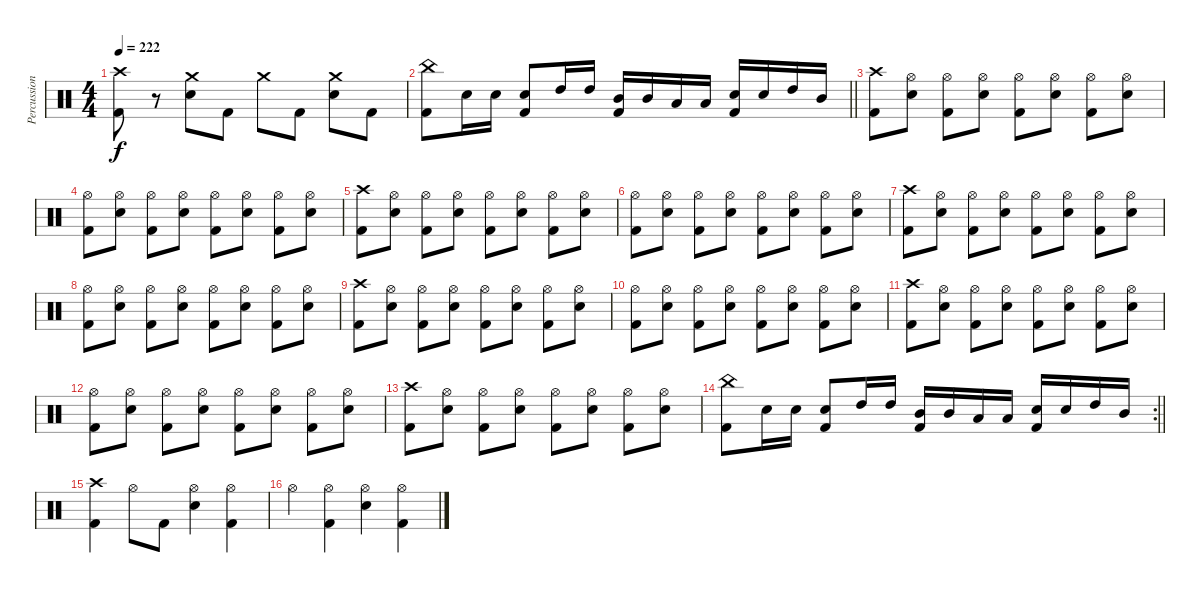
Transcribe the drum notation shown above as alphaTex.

\track ("Percussions" "Percussion") {instrument percussion}
\staff {score}
\articulation defaults
\ts (4 4)
\tempo 222
\clef neutral
\ks c
("Crash high (hit)" "Kick (hit) 2").8{dy f} r.8 ("Crash medium (hit)" "Electric Snare (hit)").8 "Kick (hit) 2".8 "Crash medium (hit)".8 "Kick (hit) 2".8 ("Crash medium (hit)" "Electric Snare (hit)").8 "Kick (hit) 2".8 |
\barLineRight lightlight
("China (hit)" "Kick (hit) 2").8 "Electric Snare (hit)".16 "Electric Snare (hit)".16 ("Electric Snare (hit)" "Kick (hit) 2").8 "High Tom (hit)".16 "High Tom (hit)".16 ("Mid Tom (hit)" "Kick (hit) 2").16 "Mid Tom (hit)".16 "Low Tom (hit)".16 "Low Tom (hit)".16 ("Electric Snare (hit)" "Kick (hit) 2").16 "Electric Snare (hit)".16 "High Tom (hit)".16 "Mid Tom (hit)".16 |
("Crash high (hit)" "Kick (hit) 2").8 ("Hi-Hat (open)" "Electric Snare (hit)").8 ("Hi-Hat (open)" "Kick (hit) 2").8 ("Hi-Hat (open)" "Electric Snare (hit)").8 ("Hi-Hat (open)" "Kick (hit) 2").8 ("Hi-Hat (open)" "Electric Snare (hit)").8 ("Hi-Hat (open)" "Kick (hit) 2").8 ("Hi-Hat (open)" "Electric Snare (hit)").8 |
("Hi-Hat (open)" "Kick (hit) 2").8 ("Hi-Hat (open)" "Electric Snare (hit)").8 ("Hi-Hat (open)" "Kick (hit) 2").8 ("Hi-Hat (open)" "Electric Snare (hit)").8 ("Hi-Hat (open)" "Kick (hit) 2").8 ("Hi-Hat (open)" "Electric Snare (hit)").8 ("Hi-Hat (open)" "Kick (hit) 2").8 ("Hi-Hat (open)" "Electric Snare (hit)").8 |
("Crash high (hit)" "Kick (hit) 2").8 ("Hi-Hat (open)" "Electric Snare (hit)").8 ("Hi-Hat (open)" "Kick (hit) 2").8 ("Hi-Hat (open)" "Electric Snare (hit)").8 ("Hi-Hat (open)" "Kick (hit) 2").8 ("Hi-Hat (open)" "Electric Snare (hit)").8 ("Hi-Hat (open)" "Kick (hit) 2").8 ("Hi-Hat (open)" "Electric Snare (hit)").8 |
("Hi-Hat (open)" "Kick (hit) 2").8 ("Hi-Hat (open)" "Electric Snare (hit)").8 ("Hi-Hat (open)" "Kick (hit) 2").8 ("Hi-Hat (open)" "Electric Snare (hit)").8 ("Hi-Hat (open)" "Kick (hit) 2").8 ("Hi-Hat (open)" "Electric Snare (hit)").8 ("Hi-Hat (open)" "Kick (hit) 2").8 ("Hi-Hat (open)" "Electric Snare (hit)").8 |
("Crash high (hit)" "Kick (hit) 2").8 ("Hi-Hat (open)" "Electric Snare (hit)").8 ("Hi-Hat (open)" "Kick (hit) 2").8 ("Hi-Hat (open)" "Electric Snare (hit)").8 ("Hi-Hat (open)" "Kick (hit) 2").8 ("Hi-Hat (open)" "Electric Snare (hit)").8 ("Hi-Hat (open)" "Kick (hit) 2").8 ("Hi-Hat (open)" "Electric Snare (hit)").8 |
("Hi-Hat (open)" "Kick (hit) 2").8 ("Hi-Hat (open)" "Electric Snare (hit)").8 ("Hi-Hat (open)" "Kick (hit) 2").8 ("Hi-Hat (open)" "Electric Snare (hit)").8 ("Hi-Hat (open)" "Kick (hit) 2").8 ("Hi-Hat (open)" "Electric Snare (hit)").8 ("Hi-Hat (open)" "Kick (hit) 2").8 ("Hi-Hat (open)" "Electric Snare (hit)").8 |
("Crash high (hit)" "Kick (hit) 2").8 ("Hi-Hat (open)" "Electric Snare (hit)").8 ("Hi-Hat (open)" "Kick (hit) 2").8 ("Hi-Hat (open)" "Electric Snare (hit)").8 ("Hi-Hat (open)" "Kick (hit) 2").8 ("Hi-Hat (open)" "Electric Snare (hit)").8 ("Hi-Hat (open)" "Kick (hit) 2").8 ("Hi-Hat (open)" "Electric Snare (hit)").8 |
("Hi-Hat (open)" "Kick (hit) 2").8 ("Hi-Hat (open)" "Electric Snare (hit)").8 ("Hi-Hat (open)" "Kick (hit) 2").8 ("Hi-Hat (open)" "Electric Snare (hit)").8 ("Hi-Hat (open)" "Kick (hit) 2").8 ("Hi-Hat (open)" "Electric Snare (hit)").8 ("Hi-Hat (open)" "Kick (hit) 2").8 ("Hi-Hat (open)" "Electric Snare (hit)").8 |
("Crash high (hit)" "Kick (hit) 2").8 ("Hi-Hat (open)" "Electric Snare (hit)").8 ("Hi-Hat (open)" "Kick (hit) 2").8 ("Hi-Hat (open)" "Electric Snare (hit)").8 ("Hi-Hat (open)" "Kick (hit) 2").8 ("Hi-Hat (open)" "Electric Snare (hit)").8 ("Hi-Hat (open)" "Kick (hit) 2").8 ("Hi-Hat (open)" "Electric Snare (hit)").8 |
("Hi-Hat (open)" "Kick (hit) 2").8 ("Hi-Hat (open)" "Electric Snare (hit)").8 ("Hi-Hat (open)" "Kick (hit) 2").8 ("Hi-Hat (open)" "Electric Snare (hit)").8 ("Hi-Hat (open)" "Kick (hit) 2").8 ("Hi-Hat (open)" "Electric Snare (hit)").8 ("Hi-Hat (open)" "Kick (hit) 2").8 ("Hi-Hat (open)" "Electric Snare (hit)").8 |
("Crash high (hit)" "Kick (hit) 2").8 ("Hi-Hat (open)" "Electric Snare (hit)").8 ("Hi-Hat (open)" "Kick (hit) 2").8 ("Hi-Hat (open)" "Electric Snare (hit)").8 ("Hi-Hat (open)" "Kick (hit) 2").8 ("Hi-Hat (open)" "Electric Snare (hit)").8 ("Hi-Hat (open)" "Kick (hit) 2").8 ("Hi-Hat (open)" "Electric Snare (hit)").8 |
\rc 2
\barLineRight lightlight
("China (hit)" "Kick (hit) 2").8 "Electric Snare (hit)".16 "Electric Snare (hit)".16 ("Electric Snare (hit)" "Kick (hit) 2").8 "High Tom (hit)".16 "High Tom (hit)".16 ("Mid Tom (hit)" "Kick (hit) 2").16 "Mid Tom (hit)".16 "Low Tom (hit)".16 "Low Tom (hit)".16 ("Electric Snare (hit)" "Kick (hit) 2").16 "Electric Snare (hit)".16 "High Tom (hit)".16 "Mid Tom (hit)".16 |
\section ("" "")
("Crash high (hit)" "Kick (hit) 2").4 "Hi-Hat (open)".8 "Kick (hit) 2".8 ("Hi-Hat (open)" "Electric Snare (hit)").4 ("Hi-Hat (open)" "Kick (hit) 2").4 |
"Hi-Hat (open)".4 ("Hi-Hat (open)" "Kick (hit) 2").4 ("Hi-Hat (open)" "Electric Snare (hit)").4 ("Hi-Hat (open)" "Kick (hit) 2").4
